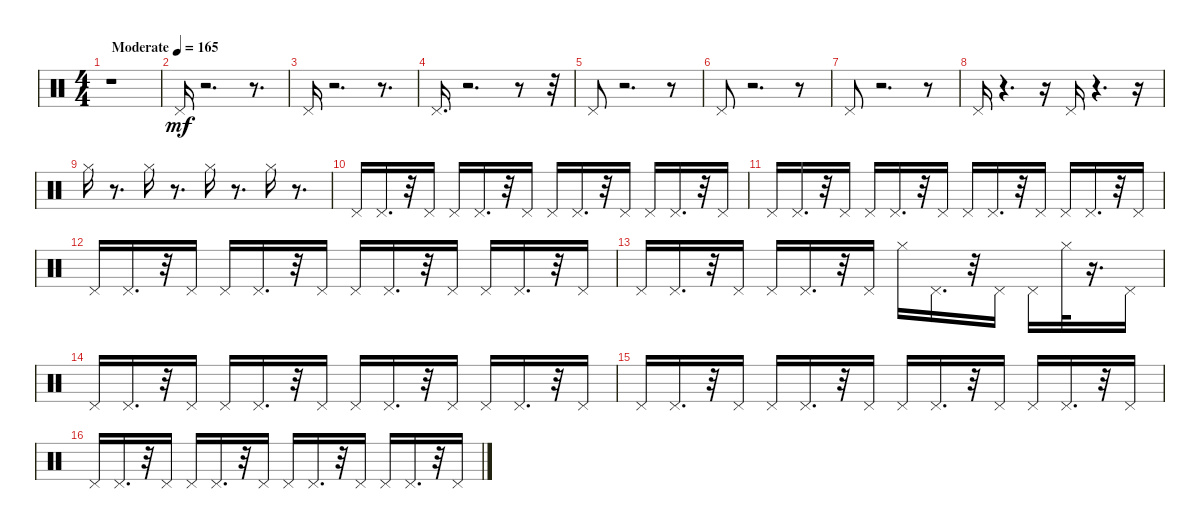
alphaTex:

\track (" " " ") {instrument percussion}
\staff {score}
\articulation defaults
\ts (4 4)
\tempo (165 "Moderate")
\clef neutral
\ks c
r.1{dy mf} |
"Pedal Hi-Hat (hit)".16 r.2{d} r.8{d} |
"Pedal Hi-Hat (hit)".16 r.2{d} r.8{d} |
"Pedal Hi-Hat (hit)".16{d} r.2{d} r.8 r.32 |
"Pedal Hi-Hat (hit)".8 r.2{d} r.8 |
"Pedal Hi-Hat (hit)".8 r.2{d} r.8 |
"Pedal Hi-Hat (hit)".8 r.2{d} r.8 |
"Pedal Hi-Hat (hit)".16 r.4{d} r.16 "Pedal Hi-Hat (hit)".16 r.4{d} r.16 |
"Hi-Hat (closed)".16 r.8{d} "Hi-Hat (closed)".16 r.8{d} "Hi-Hat (closed)".16 r.8{d} "Hi-Hat (closed)".16 r.8{d} |
"Pedal Hi-Hat (hit)".16 "Pedal Hi-Hat (hit)".16{d} r.32 "Pedal Hi-Hat (hit)".16 "Pedal Hi-Hat (hit)".16 "Pedal Hi-Hat (hit)".16{d} r.32 "Pedal Hi-Hat (hit)".16 "Pedal Hi-Hat (hit)".16 "Pedal Hi-Hat (hit)".16{d} r.32 "Pedal Hi-Hat (hit)".16 "Pedal Hi-Hat (hit)".16 "Pedal Hi-Hat (hit)".16{d} r.32 "Pedal Hi-Hat (hit)".16 |
"Pedal Hi-Hat (hit)".16 "Pedal Hi-Hat (hit)".16{d} r.32 "Pedal Hi-Hat (hit)".16 "Pedal Hi-Hat (hit)".16 "Pedal Hi-Hat (hit)".16{d} r.32 "Pedal Hi-Hat (hit)".16 "Pedal Hi-Hat (hit)".16 "Pedal Hi-Hat (hit)".16{d} r.32 "Pedal Hi-Hat (hit)".16 "Pedal Hi-Hat (hit)".16 "Pedal Hi-Hat (hit)".16{d} r.32 "Pedal Hi-Hat (hit)".16 |
"Pedal Hi-Hat (hit)".16 "Pedal Hi-Hat (hit)".16{d} r.32 "Pedal Hi-Hat (hit)".16 "Pedal Hi-Hat (hit)".16 "Pedal Hi-Hat (hit)".16{d} r.32 "Pedal Hi-Hat (hit)".16 "Pedal Hi-Hat (hit)".16 "Pedal Hi-Hat (hit)".16{d} r.32 "Pedal Hi-Hat (hit)".16 "Pedal Hi-Hat (hit)".16 "Pedal Hi-Hat (hit)".16{d} r.32 "Pedal Hi-Hat (hit)".16 |
"Pedal Hi-Hat (hit)".16 "Pedal Hi-Hat (hit)".16{d} r.32 "Pedal Hi-Hat (hit)".16 "Pedal Hi-Hat (hit)".16 "Pedal Hi-Hat (hit)".16{d} r.32 "Pedal Hi-Hat (hit)".16 "Hi-Hat (closed)".16 "Pedal Hi-Hat (hit)".16{d} r.32 "Pedal Hi-Hat (hit)".16 "Pedal Hi-Hat (hit)".16 "Hi-Hat (closed)".32 r.16{d} "Pedal Hi-Hat (hit)".16 |
"Pedal Hi-Hat (hit)".16 "Pedal Hi-Hat (hit)".16{d} r.32 "Pedal Hi-Hat (hit)".16 "Pedal Hi-Hat (hit)".16 "Pedal Hi-Hat (hit)".16{d} r.32 "Pedal Hi-Hat (hit)".16 "Pedal Hi-Hat (hit)".16 "Pedal Hi-Hat (hit)".16{d} r.32 "Pedal Hi-Hat (hit)".16 "Pedal Hi-Hat (hit)".16 "Pedal Hi-Hat (hit)".16{d} r.32 "Pedal Hi-Hat (hit)".16 |
"Pedal Hi-Hat (hit)".16 "Pedal Hi-Hat (hit)".16{d} r.32 "Pedal Hi-Hat (hit)".16 "Pedal Hi-Hat (hit)".16 "Pedal Hi-Hat (hit)".16{d} r.32 "Pedal Hi-Hat (hit)".16 "Pedal Hi-Hat (hit)".16 "Pedal Hi-Hat (hit)".16{d} r.32 "Pedal Hi-Hat (hit)".16 "Pedal Hi-Hat (hit)".16 "Pedal Hi-Hat (hit)".16{d} r.32 "Pedal Hi-Hat (hit)".16 |
"Pedal Hi-Hat (hit)".16 "Pedal Hi-Hat (hit)".16{d} r.32 "Pedal Hi-Hat (hit)".16 "Pedal Hi-Hat (hit)".16 "Pedal Hi-Hat (hit)".16{d} r.32 "Pedal Hi-Hat (hit)".16 "Pedal Hi-Hat (hit)".16 "Pedal Hi-Hat (hit)".16{d} r.32 "Pedal Hi-Hat (hit)".16 "Pedal Hi-Hat (hit)".16 "Pedal Hi-Hat (hit)".16{d} r.32 "Pedal Hi-Hat (hit)".16
